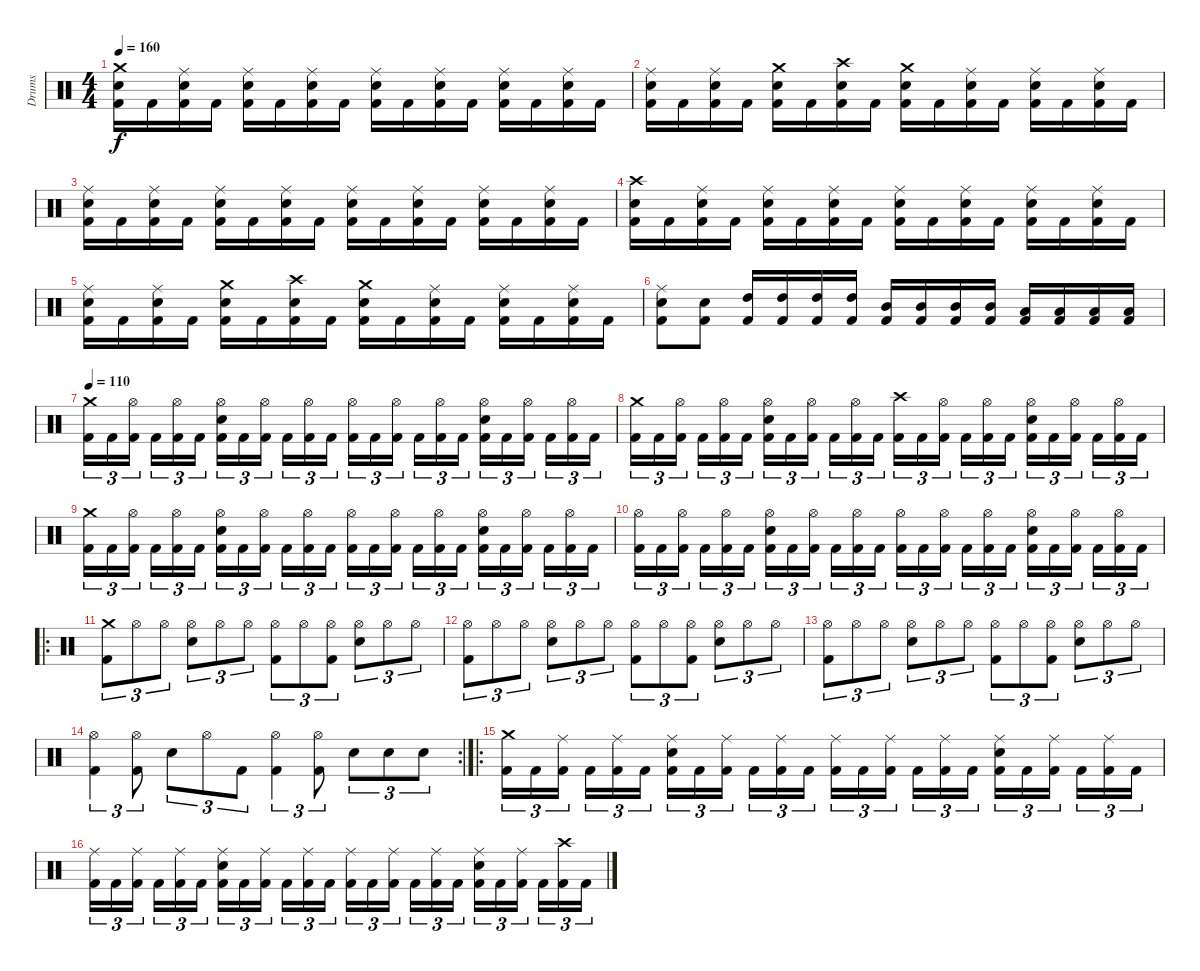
\track ("Drums" "Drums") {instrument percussion}
\staff {score}
\articulation defaults
\ts (4 4)
\tempo 160
\clef neutral
\ks c
("Kick (hit) 2" "Electric Snare (hit)" "Crash medium (hit)").16{dy f} "Kick (hit) 2".16 ("Kick (hit) 2" "Electric Snare (hit)" "Ride (middle)").16 "Kick (hit) 2".16 ("Kick (hit) 2" "Electric Snare (hit)" "Ride (middle)").16 "Kick (hit) 2".16 ("Kick (hit) 2" "Electric Snare (hit)" "Ride (middle)").16 "Kick (hit) 2".16 ("Kick (hit) 2" "Electric Snare (hit)" "Ride (middle)").16 "Kick (hit) 2".16 ("Kick (hit) 2" "Electric Snare (hit)" "Ride (middle)").16 "Kick (hit) 2".16 ("Kick (hit) 2" "Electric Snare (hit)" "Ride (middle)").16 "Kick (hit) 2".16 ("Kick (hit) 2" "Electric Snare (hit)" "Ride (middle)").16 "Kick (hit) 2".16 |
("Kick (hit) 2" "Electric Snare (hit)" "Ride (middle)").16 "Kick (hit) 2".16 ("Kick (hit) 2" "Electric Snare (hit)" "Ride (middle)").16 "Kick (hit) 2".16 ("Kick (hit) 2" "Electric Snare (hit)" "Crash medium (hit)").16 "Kick (hit) 2".16 ("Kick (hit) 2" "Electric Snare (hit)" "Crash high (hit)").16 "Kick (hit) 2".16 ("Kick (hit) 2" "Electric Snare (hit)" "Crash medium (hit)").16 "Kick (hit) 2".16 ("Kick (hit) 2" "Electric Snare (hit)" "Ride (middle)").16 "Kick (hit) 2".16 ("Kick (hit) 2" "Electric Snare (hit)" "Ride (middle)").16 "Kick (hit) 2".16 ("Kick (hit) 2" "Electric Snare (hit)" "Ride (middle)").16 "Kick (hit) 2".16 |
("Kick (hit) 2" "Electric Snare (hit)" "Ride (middle)").16 "Kick (hit) 2".16 ("Kick (hit) 2" "Electric Snare (hit)" "Ride (middle)").16 "Kick (hit) 2".16 ("Kick (hit) 2" "Electric Snare (hit)" "Ride (middle)").16 "Kick (hit) 2".16 ("Kick (hit) 2" "Electric Snare (hit)" "Ride (middle)").16 "Kick (hit) 2".16 ("Kick (hit) 2" "Electric Snare (hit)" "Ride (middle)").16 "Kick (hit) 2".16 ("Kick (hit) 2" "Electric Snare (hit)" "Ride (middle)").16 "Kick (hit) 2".16 ("Kick (hit) 2" "Electric Snare (hit)" "Ride (middle)").16 "Kick (hit) 2".16 ("Kick (hit) 2" "Electric Snare (hit)" "Ride (middle)").16 "Kick (hit) 2".16 |
("Kick (hit) 2" "Electric Snare (hit)" "Crash high (hit)").16 "Kick (hit) 2".16 ("Kick (hit) 2" "Electric Snare (hit)" "Ride (middle)").16 "Kick (hit) 2".16 ("Kick (hit) 2" "Electric Snare (hit)" "Ride (middle)").16 "Kick (hit) 2".16 ("Kick (hit) 2" "Electric Snare (hit)" "Ride (middle)").16 "Kick (hit) 2".16 ("Kick (hit) 2" "Electric Snare (hit)" "Ride (middle)").16 "Kick (hit) 2".16 ("Kick (hit) 2" "Electric Snare (hit)" "Ride (middle)").16 "Kick (hit) 2".16 ("Kick (hit) 2" "Electric Snare (hit)" "Ride (middle)").16 "Kick (hit) 2".16 ("Kick (hit) 2" "Electric Snare (hit)" "Ride (middle)").16 "Kick (hit) 2".16 |
("Kick (hit) 2" "Electric Snare (hit)" "Ride (middle)").16 "Kick (hit) 2".16 ("Kick (hit) 2" "Electric Snare (hit)" "Ride (middle)").16 "Kick (hit) 2".16 ("Kick (hit) 2" "Electric Snare (hit)" "Crash medium (hit)").16 "Kick (hit) 2".16 ("Kick (hit) 2" "Electric Snare (hit)" "Crash high (hit)").16 "Kick (hit) 2".16 ("Kick (hit) 2" "Electric Snare (hit)" "Crash medium (hit)").16 "Kick (hit) 2".16 ("Kick (hit) 2" "Electric Snare (hit)" "Ride (middle)").16 "Kick (hit) 2".16 ("Kick (hit) 2" "Electric Snare (hit)" "Ride (middle)").16 "Kick (hit) 2".16 ("Kick (hit) 2" "Electric Snare (hit)" "Ride (middle)").16 "Kick (hit) 2".16 |
("Kick (hit) 2" "Electric Snare (hit)" "Ride (middle)").8 ("Kick (hit) 2" "Electric Snare (hit)").8 ("Kick (hit) 2" "High Tom (hit)").16 ("Kick (hit) 2" "High Tom (hit)").16 ("Kick (hit) 2" "High Tom (hit)").16 ("Kick (hit) 2" "High Tom (hit)").16 ("Kick (hit) 2" "Mid Tom (hit)").16 ("Kick (hit) 2" "Mid Tom (hit)").16 ("Kick (hit) 2" "Mid Tom (hit)").16 ("Kick (hit) 2" "Mid Tom (hit)").16 ("Kick (hit) 2" "Low Tom (hit)").16 ("Kick (hit) 2" "Low Tom (hit)").16 ("Kick (hit) 2" "Low Tom (hit)").16 ("Kick (hit) 2" "Low Tom (hit)").16 |
\tempo 110
("Kick (hit) 2" "Crash medium (hit)").16{tu (3 2)} "Kick (hit) 2".16{tu (3 2)} ("Kick (hit) 2" "Hi-Hat (open)").16{tu (3 2)} "Kick (hit) 2".16{tu (3 2)} ("Kick (hit) 2" "Hi-Hat (open)").16{tu (3 2)} "Kick (hit) 2".16{tu (3 2)} ("Kick (hit) 2" "Electric Snare (hit)" "Hi-Hat (open)").16{tu (3 2)} "Kick (hit) 2".16{tu (3 2)} ("Kick (hit) 2" "Hi-Hat (open)").16{tu (3 2)} "Kick (hit) 2".16{tu (3 2)} ("Kick (hit) 2" "Hi-Hat (open)").16{tu (3 2)} "Kick (hit) 2".16{tu (3 2)} ("Kick (hit) 2" "Hi-Hat (open)").16{tu (3 2)} "Kick (hit) 2".16{tu (3 2)} ("Kick (hit) 2" "Hi-Hat (open)").16{tu (3 2)} "Kick (hit) 2".16{tu (3 2)} ("Kick (hit) 2" "Hi-Hat (open)").16{tu (3 2)} "Kick (hit) 2".16{tu (3 2)} ("Kick (hit) 2" "Electric Snare (hit)" "Hi-Hat (open)").16{tu (3 2)} "Kick (hit) 2".16{tu (3 2)} ("Kick (hit) 2" "Hi-Hat (open)").16{tu (3 2)} "Kick (hit) 2".16{tu (3 2)} ("Kick (hit) 2" "Hi-Hat (open)").16{tu (3 2)} "Kick (hit) 2".16{tu (3 2)} |
("Kick (hit) 2" "Crash medium (hit)").16{tu (3 2)} "Kick (hit) 2".16{tu (3 2)} ("Kick (hit) 2" "Hi-Hat (open)").16{tu (3 2)} "Kick (hit) 2".16{tu (3 2)} ("Kick (hit) 2" "Hi-Hat (open)").16{tu (3 2)} "Kick (hit) 2".16{tu (3 2)} ("Kick (hit) 2" "Electric Snare (hit)" "Hi-Hat (open)").16{tu (3 2)} "Kick (hit) 2".16{tu (3 2)} ("Kick (hit) 2" "Hi-Hat (open)").16{tu (3 2)} "Kick (hit) 2".16{tu (3 2)} ("Kick (hit) 2" "Hi-Hat (open)").16{tu (3 2)} "Kick (hit) 2".16{tu (3 2)} ("Kick (hit) 2" "Crash high (hit)").16{tu (3 2)} "Kick (hit) 2".16{tu (3 2)} ("Kick (hit) 2" "Hi-Hat (open)").16{tu (3 2)} "Kick (hit) 2".16{tu (3 2)} ("Kick (hit) 2" "Hi-Hat (open)").16{tu (3 2)} "Kick (hit) 2".16{tu (3 2)} ("Kick (hit) 2" "Electric Snare (hit)" "Hi-Hat (open)").16{tu (3 2)} "Kick (hit) 2".16{tu (3 2)} ("Kick (hit) 2" "Hi-Hat (open)").16{tu (3 2)} "Kick (hit) 2".16{tu (3 2)} ("Kick (hit) 2" "Hi-Hat (open)").16{tu (3 2)} "Kick (hit) 2".16{tu (3 2)} |
("Kick (hit) 2" "Crash medium (hit)").16{tu (3 2)} "Kick (hit) 2".16{tu (3 2)} ("Kick (hit) 2" "Hi-Hat (open)").16{tu (3 2)} "Kick (hit) 2".16{tu (3 2)} ("Kick (hit) 2" "Hi-Hat (open)").16{tu (3 2)} "Kick (hit) 2".16{tu (3 2)} ("Kick (hit) 2" "Electric Snare (hit)" "Hi-Hat (open)").16{tu (3 2)} "Kick (hit) 2".16{tu (3 2)} ("Kick (hit) 2" "Hi-Hat (open)").16{tu (3 2)} "Kick (hit) 2".16{tu (3 2)} ("Kick (hit) 2" "Hi-Hat (open)").16{tu (3 2)} "Kick (hit) 2".16{tu (3 2)} ("Kick (hit) 2" "Hi-Hat (open)").16{tu (3 2)} "Kick (hit) 2".16{tu (3 2)} ("Kick (hit) 2" "Hi-Hat (open)").16{tu (3 2)} "Kick (hit) 2".16{tu (3 2)} ("Kick (hit) 2" "Hi-Hat (open)").16{tu (3 2)} "Kick (hit) 2".16{tu (3 2)} ("Kick (hit) 2" "Electric Snare (hit)" "Hi-Hat (open)").16{tu (3 2)} "Kick (hit) 2".16{tu (3 2)} ("Kick (hit) 2" "Hi-Hat (open)").16{tu (3 2)} "Kick (hit) 2".16{tu (3 2)} ("Kick (hit) 2" "Hi-Hat (open)").16{tu (3 2)} "Kick (hit) 2".16{tu (3 2)} |
("Kick (hit) 2" "Hi-Hat (open)").16{tu (3 2)} "Kick (hit) 2".16{tu (3 2)} ("Kick (hit) 2" "Hi-Hat (open)").16{tu (3 2)} "Kick (hit) 2".16{tu (3 2)} ("Kick (hit) 2" "Hi-Hat (open)").16{tu (3 2)} "Kick (hit) 2".16{tu (3 2)} ("Kick (hit) 2" "Electric Snare (hit)" "Hi-Hat (open)").16{tu (3 2)} "Kick (hit) 2".16{tu (3 2)} ("Kick (hit) 2" "Hi-Hat (open)").16{tu (3 2)} "Kick (hit) 2".16{tu (3 2)} ("Kick (hit) 2" "Hi-Hat (open)").16{tu (3 2)} "Kick (hit) 2".16{tu (3 2)} ("Kick (hit) 2" "Hi-Hat (open)").16{tu (3 2)} "Kick (hit) 2".16{tu (3 2)} ("Kick (hit) 2" "Hi-Hat (open)").16{tu (3 2)} "Kick (hit) 2".16{tu (3 2)} ("Kick (hit) 2" "Hi-Hat (open)").16{tu (3 2)} "Kick (hit) 2".16{tu (3 2)} ("Kick (hit) 2" "Electric Snare (hit)" "Hi-Hat (open)").16{tu (3 2)} "Kick (hit) 2".16{tu (3 2)} ("Kick (hit) 2" "Hi-Hat (open)").16{tu (3 2)} "Kick (hit) 2".16{tu (3 2)} ("Kick (hit) 2" "Hi-Hat (open)").16{tu (3 2)} "Kick (hit) 2".16{tu (3 2)} |
\ro
("Kick (hit) 2" "Crash medium (hit)").8{tu (3 2)} "Hi-Hat (open)".8{tu (3 2)} "Hi-Hat (open)".8{tu (3 2)} ("Electric Snare (hit)" "Hi-Hat (open)").8{tu (3 2)} "Hi-Hat (open)".8{tu (3 2)} "Hi-Hat (open)".8{tu (3 2)} ("Kick (hit) 2" "Hi-Hat (open)").8{tu (3 2)} "Hi-Hat (open)".8{tu (3 2)} ("Kick (hit) 2" "Hi-Hat (open)").8{tu (3 2)} ("Electric Snare (hit)" "Hi-Hat (open)").8{tu (3 2)} "Hi-Hat (open)".8{tu (3 2)} "Hi-Hat (open)".8{tu (3 2)} |
("Kick (hit) 2" "Hi-Hat (open)").8{tu (3 2)} "Hi-Hat (open)".8{tu (3 2)} "Hi-Hat (open)".8{tu (3 2)} ("Electric Snare (hit)" "Hi-Hat (open)").8{tu (3 2)} "Hi-Hat (open)".8{tu (3 2)} "Hi-Hat (open)".8{tu (3 2)} ("Kick (hit) 2" "Hi-Hat (open)").8{tu (3 2)} "Hi-Hat (open)".8{tu (3 2)} ("Kick (hit) 2" "Hi-Hat (open)").8{tu (3 2)} ("Electric Snare (hit)" "Hi-Hat (open)").8{tu (3 2)} "Hi-Hat (open)".8{tu (3 2)} "Hi-Hat (open)".8{tu (3 2)} |
("Kick (hit) 2" "Hi-Hat (open)").8{tu (3 2)} "Hi-Hat (open)".8{tu (3 2)} "Hi-Hat (open)".8{tu (3 2)} ("Electric Snare (hit)" "Hi-Hat (open)").8{tu (3 2)} "Hi-Hat (open)".8{tu (3 2)} "Hi-Hat (open)".8{tu (3 2)} ("Kick (hit) 2" "Hi-Hat (open)").8{tu (3 2)} "Hi-Hat (open)".8{tu (3 2)} ("Kick (hit) 2" "Hi-Hat (open)").8{tu (3 2)} ("Electric Snare (hit)" "Hi-Hat (open)").8{tu (3 2)} "Hi-Hat (open)".8{tu (3 2)} "Hi-Hat (open)".8{tu (3 2)} |
\rc 2
("Kick (hit) 2" "Hi-Hat (open)").4{tu (3 2)} ("Kick (hit) 2" "Hi-Hat (open)").8{tu (3 2)} "Electric Snare (hit)".8{tu (3 2)} "Hi-Hat (open)".8{tu (3 2)} "Kick (hit) 2".8{tu (3 2)} ("Kick (hit) 2" "Hi-Hat (open)").4{tu (3 2)} ("Kick (hit) 2" "Hi-Hat (open)").8{tu (3 2)} "Electric Snare (hit)".8{tu (3 2)} "Electric Snare (hit)".8{tu (3 2)} "Electric Snare (hit)".8{tu (3 2)} |
\ro
("Kick (hit) 2" "Crash medium (hit)").16{tu (3 2)} "Kick (hit) 2".16{tu (3 2)} ("Kick (hit) 2" "Ride (middle)").16{tu (3 2)} "Kick (hit) 2".16{tu (3 2)} ("Kick (hit) 2" "Ride (middle)").16{tu (3 2)} "Kick (hit) 2".16{tu (3 2)} ("Kick (hit) 2" "Electric Snare (hit)" "Ride (middle)").16{tu (3 2)} "Kick (hit) 2".16{tu (3 2)} ("Kick (hit) 2" "Ride (middle)").16{tu (3 2)} "Kick (hit) 2".16{tu (3 2)} ("Kick (hit) 2" "Ride (middle)").16{tu (3 2)} "Kick (hit) 2".16{tu (3 2)} ("Kick (hit) 2" "Ride (middle)").16{tu (3 2)} "Kick (hit) 2".16{tu (3 2)} ("Kick (hit) 2" "Ride (middle)").16{tu (3 2)} "Kick (hit) 2".16{tu (3 2)} ("Kick (hit) 2" "Ride (middle)").16{tu (3 2)} "Kick (hit) 2".16{tu (3 2)} ("Kick (hit) 2" "Electric Snare (hit)" "Ride (middle)").16{tu (3 2)} "Kick (hit) 2".16{tu (3 2)} ("Kick (hit) 2" "Ride (middle)").16{tu (3 2)} "Kick (hit) 2".16{tu (3 2)} ("Kick (hit) 2" "Ride (middle)").16{tu (3 2)} "Kick (hit) 2".16{tu (3 2)} |
("Kick (hit) 2" "Ride (middle)").16{tu (3 2)} "Kick (hit) 2".16{tu (3 2)} ("Kick (hit) 2" "Ride (middle)").16{tu (3 2)} "Kick (hit) 2".16{tu (3 2)} ("Kick (hit) 2" "Ride (middle)").16{tu (3 2)} "Kick (hit) 2".16{tu (3 2)} ("Kick (hit) 2" "Electric Snare (hit)" "Ride (middle)").16{tu (3 2)} "Kick (hit) 2".16{tu (3 2)} ("Kick (hit) 2" "Ride (middle)").16{tu (3 2)} "Kick (hit) 2".16{tu (3 2)} ("Kick (hit) 2" "Ride (middle)").16{tu (3 2)} "Kick (hit) 2".16{tu (3 2)} ("Kick (hit) 2" "Ride (middle)").16{tu (3 2)} "Kick (hit) 2".16{tu (3 2)} ("Kick (hit) 2" "Ride (middle)").16{tu (3 2)} "Kick (hit) 2".16{tu (3 2)} ("Kick (hit) 2" "Ride (middle)").16{tu (3 2)} "Kick (hit) 2".16{tu (3 2)} ("Kick (hit) 2" "Electric Snare (hit)" "Ride (middle)").16{tu (3 2)} "Kick (hit) 2".16{tu (3 2)} ("Kick (hit) 2" "Ride (middle)").16{tu (3 2)} "Kick (hit) 2".16{tu (3 2)} ("Kick (hit) 2" "Crash high (hit)").16{tu (3 2)} "Kick (hit) 2".16{tu (3 2)}
